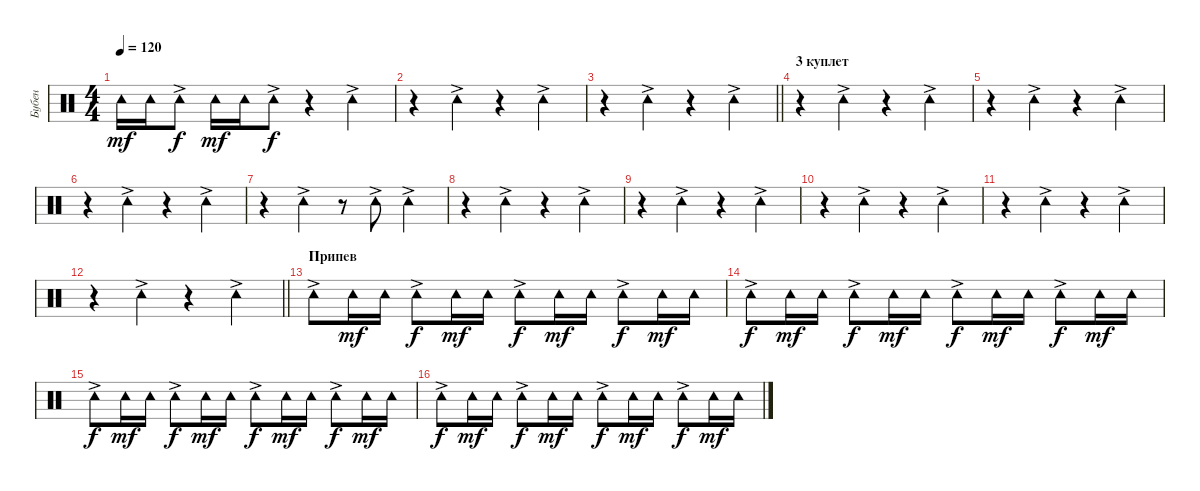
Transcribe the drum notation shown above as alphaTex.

\track ("Бубен" "Бубен") {instrument percussion}
\staff {score}
\articulation defaults
\ts (4 4)
\tempo 120
\clef neutral
\ks c "Tambourine (hit)".16{dy mf} "Tambourine (hit)".16 "Tambourine (hit)"{ac}.8{dy f} "Tambourine (hit)".16{dy mf} "Tambourine (hit)".16 "Tambourine (hit)"{ac}.8{dy f}
r.4 "Tambourine (hit)"{ac}.4 |
r.4 "Tambourine (hit)"{ac}.4 r.4 "Tambourine (hit)"{ac}.4 |
\barLineRight lightlight
r.4 "Tambourine (hit)"{ac}.4 r.4 "Tambourine (hit)"{ac}.4 |
\section ("" "3 куплет")
r.4 "Tambourine (hit)"{ac}.4 r.4 "Tambourine (hit)"{ac}.4 |
r.4 "Tambourine (hit)"{ac}.4 r.4 "Tambourine (hit)"{ac}.4 |
r.4 "Tambourine (hit)"{ac}.4 r.4 "Tambourine (hit)"{ac}.4 |
r.4 "Tambourine (hit)"{ac}.4 r.8 "Tambourine (hit)"{ac}.8 "Tambourine (hit)"{ac}.4 |
r.4 "Tambourine (hit)"{ac}.4 r.4 "Tambourine (hit)"{ac}.4 |
r.4 "Tambourine (hit)"{ac}.4 r.4 "Tambourine (hit)"{ac}.4 |
r.4 "Tambourine (hit)"{ac}.4 r.4 "Tambourine (hit)"{ac}.4 |
r.4 "Tambourine (hit)"{ac}.4 r.4 "Tambourine (hit)"{ac}.4 |
\barLineRight lightlight
r.4 "Tambourine (hit)"{ac}.4 r.4 "Tambourine (hit)"{ac}.4 |
\section ("" "Припев")
"Tambourine (hit)"{ac}.8 "Tambourine (hit)".16{dy mf} "Tambourine (hit)".16 "Tambourine (hit)"{ac}.8{dy f} "Tambourine (hit)".16{dy mf} "Tambourine (hit)".16 "Tambourine (hit)"{ac}.8{dy f} "Tambourine (hit)".16{dy mf} "Tambourine (hit)".16 "Tambourine (hit)"{ac}.8{dy f} "Tambourine (hit)".16{dy mf} "Tambourine (hit)".16 |
"Tambourine (hit)"{ac}.8{dy f} "Tambourine (hit)".16{dy mf} "Tambourine (hit)".16 "Tambourine (hit)"{ac}.8{dy f} "Tambourine (hit)".16{dy mf} "Tambourine (hit)".16 "Tambourine (hit)"{ac}.8{dy f} "Tambourine (hit)".16{dy mf} "Tambourine (hit)".16 "Tambourine (hit)"{ac}.8{dy f} "Tambourine (hit)".16{dy mf} "Tambourine (hit)".16 |
"Tambourine (hit)"{ac}.8{dy f} "Tambourine (hit)".16{dy mf} "Tambourine (hit)".16 "Tambourine (hit)"{ac}.8{dy f} "Tambourine (hit)".16{dy mf} "Tambourine (hit)".16 "Tambourine (hit)"{ac}.8{dy f} "Tambourine (hit)".16{dy mf} "Tambourine (hit)".16 "Tambourine (hit)"{ac}.8{dy f} "Tambourine (hit)".16{dy mf} "Tambourine (hit)".16 |
"Tambourine (hit)"{ac}.8{dy f} "Tambourine (hit)".16{dy mf} "Tambourine (hit)".16 "Tambourine (hit)"{ac}.8{dy f} "Tambourine (hit)".16{dy mf} "Tambourine (hit)".16 "Tambourine (hit)"{ac}.8{dy f} "Tambourine (hit)".16{dy mf} "Tambourine (hit)".16 "Tambourine (hit)"{ac}.8{dy f} "Tambourine (hit)".16{dy mf} "Tambourine (hit)".16
